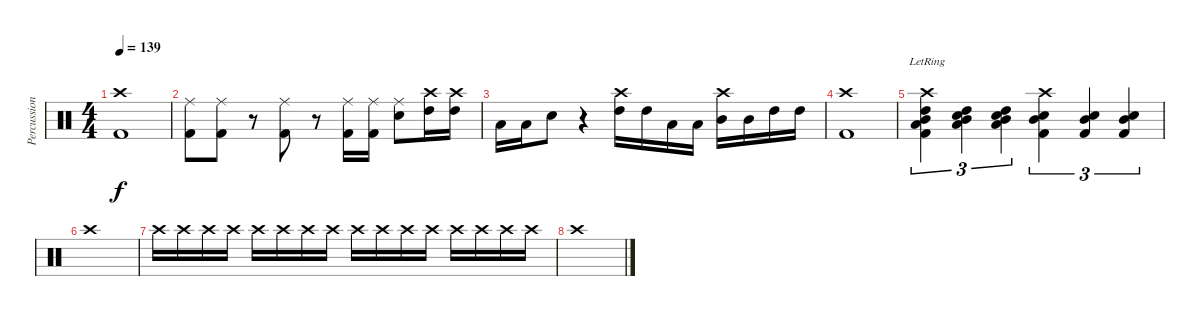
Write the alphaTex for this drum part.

\track ("Percussion" "Percussion") {instrument percussion}
\staff {score}
\articulation defaults
\ts (4 4)
\tempo 139
\clef neutral
\ks c
("Crash high (hit)" "Kick (hit) 2").1{dy f} |
("Ride (middle)" "Kick (hit) 2").8 ("Ride (middle)" "Kick (hit) 2").8 r.8 ("Ride (middle)" "Kick (hit) 2").8 r.8 ("Kick (hit) 2" "Ride (middle)").16 ("Ride (middle)" "Kick (hit) 2").16 ("Ride (middle)" "Snare (hit) 2").8 ("Crash high (hit)" "High Tom (hit)").16 ("Crash high (hit)" "High Tom (hit)").16 |
"Low Tom (hit)".16 "Low Tom (hit)".16 "Snare (hit) 2".8 r.4 ("Crash high (hit)" "High Tom (hit)").16 "High Tom (hit)".16 "Low Tom (hit)".16 "Low Tom (hit)".16 ("Crash high (hit)" "Mid Tom (hit)").16 "Mid Tom (hit)".16 "High Tom (hit)".16 "High Tom (hit)".16 |
("Crash high (hit)" "Kick (hit) 2").1 |
("Crash high (hit)" "High Tom (hit)" "Mid Tom (hit)" "Low Tom (hit)" "Kick (hit) 2"{lr}).4{tu (3 2)} ("High Tom (hit)" "Mid Tom (hit)" "Low Tom (hit)" "Snare (hit) 2").4{tu (3 2)} ("Mid Tom (hit)" "High Tom (hit)" "Low Tom (hit)" "Snare (hit) 2").4{tu (3 2)} ("Crash high (hit)" "Mid Tom (hit)" "Snare (hit) 2" "Kick (hit) 2").4{tu (3 2)} ("Mid Tom (hit)" "Snare (hit) 2" "Kick (hit) 2").4{tu (3 2)} ("Mid Tom (hit)" "Snare (hit) 2" "Kick (hit) 2").4{tu (3 2)} |
"Crash high (hit)".1 |
"Crash high (hit)".16 "Crash high (hit)".16 "Crash high (hit)".16 "Crash high (hit)".16 "Crash high (hit)".16 "Crash high (hit)".16 "Crash high (hit)".16 "Crash high (hit)".16 "Crash high (hit)".16 "Crash high (hit)".16 "Crash high (hit)".16 "Crash high (hit)".16 "Crash high (hit)".16 "Crash high (hit)".16 "Crash high (hit)".16 "Crash high (hit)".16 |
"Crash high (hit)".1
